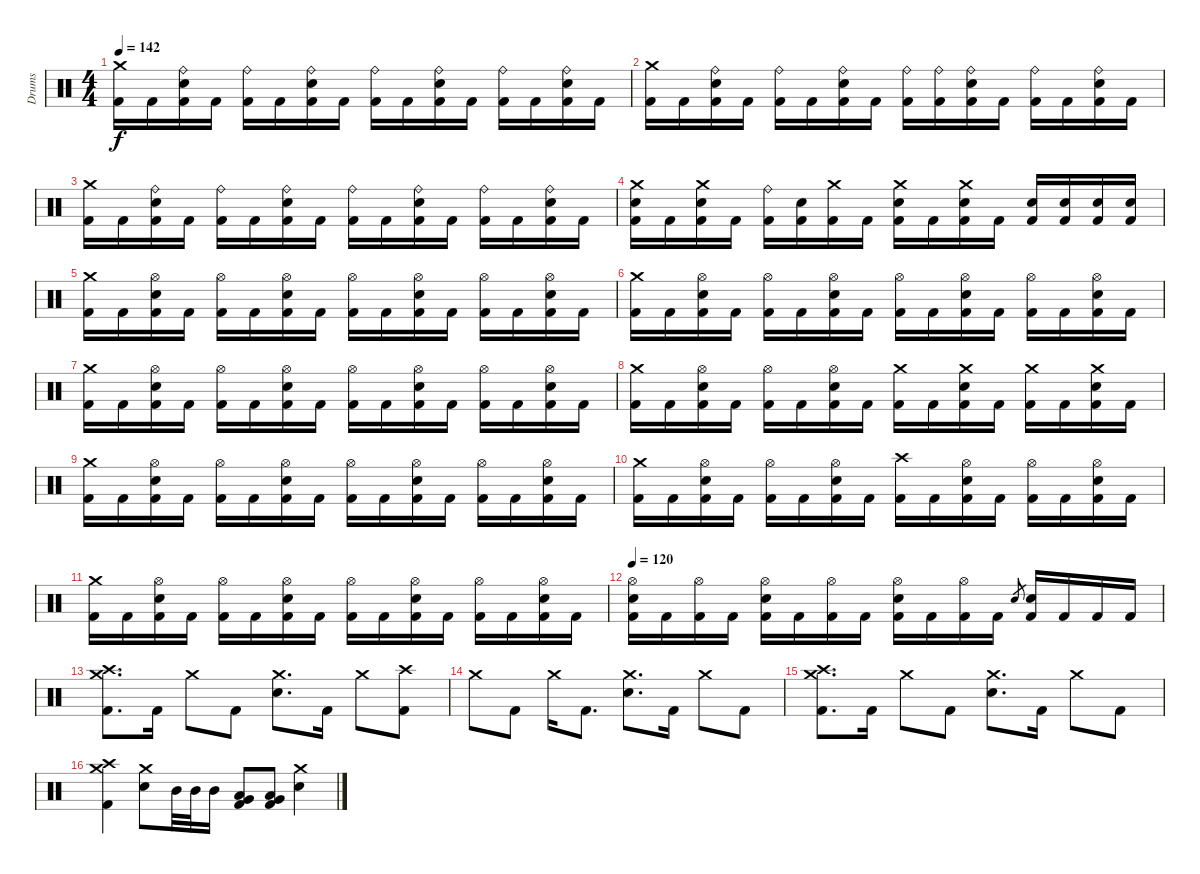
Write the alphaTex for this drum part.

\track ("Drums" "Drums") {instrument percussion}
\staff {score}
\articulation defaults
\ts (4 4)
\tempo 142
\clef neutral
\ks c
("Crash medium (hit)" "Kick (hit) 2").16{dy f} "Kick (hit) 2".16 ("Ride (bell)" "Electric Snare (hit)" "Kick (hit) 2").16 "Kick (hit) 2".16 ("Ride (bell)" "Kick (hit) 2").16 "Kick (hit) 2".16 ("Ride (bell)" "Electric Snare (hit)" "Kick (hit) 2").16 "Kick (hit) 2".16 ("Ride (bell)" "Kick (hit) 2").16 "Kick (hit) 2".16 ("Ride (bell)" "Electric Snare (hit)" "Kick (hit) 2").16 "Kick (hit) 2".16 ("Ride (bell)" "Kick (hit) 2").16 "Kick (hit) 2".16 ("Ride (bell)" "Electric Snare (hit)" "Kick (hit) 2").16 "Kick (hit) 2".16 |
("Crash medium (hit)" "Kick (hit) 2").16 "Kick (hit) 2".16 ("Ride (bell)" "Electric Snare (hit)" "Kick (hit) 2").16 "Kick (hit) 2".16 ("Ride (bell)" "Kick (hit) 2").16 "Kick (hit) 2".16 ("Ride (bell)" "Electric Snare (hit)" "Kick (hit) 2").16 "Kick (hit) 2".16 ("Ride (bell)" "Kick (hit) 2").16 ("Ride (bell)" "Kick (hit) 2").16 ("Ride (bell)" "Electric Snare (hit)" "Kick (hit) 2").16 "Kick (hit) 2".16 ("Ride (bell)" "Kick (hit) 2").16 "Kick (hit) 2".16 ("Ride (bell)" "Electric Snare (hit)" "Kick (hit) 2").16 "Kick (hit) 2".16 |
("Crash medium (hit)" "Kick (hit) 2").16 "Kick (hit) 2".16 ("Ride (bell)" "Electric Snare (hit)" "Kick (hit) 2").16 "Kick (hit) 2".16 ("Ride (bell)" "Kick (hit) 2").16 "Kick (hit) 2".16 ("Ride (bell)" "Electric Snare (hit)" "Kick (hit) 2").16 "Kick (hit) 2".16 ("Ride (bell)" "Kick (hit) 2").16 "Kick (hit) 2".16 ("Ride (bell)" "Electric Snare (hit)" "Kick (hit) 2").16 "Kick (hit) 2".16 ("Ride (bell)" "Kick (hit) 2").16 "Kick (hit) 2".16 ("Ride (bell)" "Electric Snare (hit)" "Kick (hit) 2").16 "Kick (hit) 2".16 |
("Crash medium (hit)" "Electric Snare (hit)" "Kick (hit) 2").16 "Kick (hit) 2".16 ("Crash medium (hit)" "Electric Snare (hit)" "Kick (hit) 2").16 "Kick (hit) 2".16 ("Ride (bell)" "Kick (hit) 2").16 ("Electric Snare (hit)" "Kick (hit) 2").16 ("Crash medium (hit)" "Kick (hit) 2").16 "Kick (hit) 2".16 ("Crash medium (hit)" "Electric Snare (hit)" "Kick (hit) 2").16 "Kick (hit) 2".16 ("Crash medium (hit)" "Electric Snare (hit)" "Kick (hit) 2").16 "Kick (hit) 2".16 ("Electric Snare (hit)" "Kick (hit) 2").16 ("Electric Snare (hit)" "Kick (hit) 2").16 ("Electric Snare (hit)" "Kick (hit) 2").16 ("Electric Snare (hit)" "Kick (hit) 2").16 |
("Crash medium (hit)" "Kick (hit) 2").16 "Kick (hit) 2".16 ("Hi-Hat (open)" "Electric Snare (hit)" "Kick (hit) 2").16 "Kick (hit) 2".16 ("Hi-Hat (open)" "Kick (hit) 2").16 "Kick (hit) 2".16 ("Hi-Hat (open)" "Electric Snare (hit)" "Kick (hit) 2").16 "Kick (hit) 2".16 ("Hi-Hat (open)" "Kick (hit) 2").16 "Kick (hit) 2".16 ("Hi-Hat (open)" "Electric Snare (hit)" "Kick (hit) 2").16 "Kick (hit) 2".16 ("Hi-Hat (open)" "Kick (hit) 2").16 "Kick (hit) 2".16 ("Hi-Hat (open)" "Electric Snare (hit)" "Kick (hit) 2").16 "Kick (hit) 2".16 |
("Crash medium (hit)" "Kick (hit) 2").16 "Kick (hit) 2".16 ("Hi-Hat (open)" "Electric Snare (hit)" "Kick (hit) 2").16 "Kick (hit) 2".16 ("Hi-Hat (open)" "Kick (hit) 2").16 "Kick (hit) 2".16 ("Hi-Hat (open)" "Electric Snare (hit)" "Kick (hit) 2").16 "Kick (hit) 2".16 ("Hi-Hat (open)" "Kick (hit) 2").16 "Kick (hit) 2".16 ("Hi-Hat (open)" "Electric Snare (hit)" "Kick (hit) 2").16 "Kick (hit) 2".16 ("Hi-Hat (open)" "Kick (hit) 2").16 "Kick (hit) 2".16 ("Hi-Hat (open)" "Electric Snare (hit)" "Kick (hit) 2").16 "Kick (hit) 2".16 |
("Crash medium (hit)" "Kick (hit) 2").16 "Kick (hit) 2".16 ("Hi-Hat (open)" "Electric Snare (hit)" "Kick (hit) 2").16 "Kick (hit) 2".16 ("Hi-Hat (open)" "Kick (hit) 2").16 "Kick (hit) 2".16 ("Hi-Hat (open)" "Electric Snare (hit)" "Kick (hit) 2").16 "Kick (hit) 2".16 ("Hi-Hat (open)" "Kick (hit) 2").16 "Kick (hit) 2".16 ("Hi-Hat (open)" "Electric Snare (hit)" "Kick (hit) 2").16 "Kick (hit) 2".16 ("Hi-Hat (open)" "Kick (hit) 2").16 "Kick (hit) 2".16 ("Hi-Hat (open)" "Electric Snare (hit)" "Kick (hit) 2").16 "Kick (hit) 2".16 |
("Crash medium (hit)" "Kick (hit) 2").16 "Kick (hit) 2".16 ("Hi-Hat (open)" "Electric Snare (hit)" "Kick (hit) 2").16 "Kick (hit) 2".16 ("Hi-Hat (open)" "Kick (hit) 2").16 "Kick (hit) 2".16 ("Hi-Hat (open)" "Electric Snare (hit)" "Kick (hit) 2").16 "Kick (hit) 2".16 ("Crash medium (hit)" "Kick (hit) 2").16 "Kick (hit) 2".16 ("Crash medium (hit)" "Electric Snare (hit)" "Kick (hit) 2").16 "Kick (hit) 2".16 ("Crash medium (hit)" "Kick (hit) 2").16 "Kick (hit) 2".16 ("Crash medium (hit)" "Electric Snare (hit)" "Kick (hit) 2").16 "Kick (hit) 2".16 |
("Crash medium (hit)" "Kick (hit) 2").16 "Kick (hit) 2".16 ("Hi-Hat (open)" "Electric Snare (hit)" "Kick (hit) 2").16 "Kick (hit) 2".16 ("Hi-Hat (open)" "Kick (hit) 2").16 "Kick (hit) 2".16 ("Hi-Hat (open)" "Electric Snare (hit)" "Kick (hit) 2").16 "Kick (hit) 2".16 ("Hi-Hat (open)" "Kick (hit) 2").16 "Kick (hit) 2".16 ("Hi-Hat (open)" "Electric Snare (hit)" "Kick (hit) 2").16 "Kick (hit) 2".16 ("Hi-Hat (open)" "Kick (hit) 2").16 "Kick (hit) 2".16 ("Hi-Hat (open)" "Electric Snare (hit)" "Kick (hit) 2").16 "Kick (hit) 2".16 |
("Crash medium (hit)" "Kick (hit) 2").16 "Kick (hit) 2".16 ("Hi-Hat (open)" "Electric Snare (hit)" "Kick (hit) 2").16 "Kick (hit) 2".16 ("Hi-Hat (open)" "Kick (hit) 2").16 "Kick (hit) 2".16 ("Hi-Hat (open)" "Electric Snare (hit)" "Kick (hit) 2").16 "Kick (hit) 2".16 ("Crash high (hit)" "Kick (hit) 2").16 "Kick (hit) 2".16 ("Hi-Hat (open)" "Electric Snare (hit)" "Kick (hit) 2").16 "Kick (hit) 2".16 ("Hi-Hat (open)" "Kick (hit) 2").16 "Kick (hit) 2".16 ("Hi-Hat (open)" "Electric Snare (hit)" "Kick (hit) 2").16 "Kick (hit) 2".16 |
("Crash medium (hit)" "Kick (hit) 2").16 "Kick (hit) 2".16 ("Hi-Hat (open)" "Electric Snare (hit)" "Kick (hit) 2").16 "Kick (hit) 2".16 ("Hi-Hat (open)" "Kick (hit) 2").16 "Kick (hit) 2".16 ("Hi-Hat (open)" "Electric Snare (hit)" "Kick (hit) 2").16 "Kick (hit) 2".16 ("Hi-Hat (open)" "Kick (hit) 2").16 "Kick (hit) 2".16 ("Hi-Hat (open)" "Electric Snare (hit)" "Kick (hit) 2").16 "Kick (hit) 2".16 ("Hi-Hat (open)" "Kick (hit) 2").16 "Kick (hit) 2".16 ("Hi-Hat (open)" "Electric Snare (hit)" "Kick (hit) 2").16 "Kick (hit) 2".16 |
\tempo 120
("Hi-Hat (open)" "Electric Snare (hit)" "Kick (hit) 2").16 "Kick (hit) 2".16 ("Hi-Hat (open)" "Kick (hit) 2").16 "Kick (hit) 2".16 ("Hi-Hat (open)" "Electric Snare (hit)" "Kick (hit) 2").16 "Kick (hit) 2".16 ("Hi-Hat (open)" "Kick (hit) 2").16 "Kick (hit) 2".16 ("Hi-Hat (open)" "Electric Snare (hit)" "Kick (hit) 2").16 "Kick (hit) 2".16 ("Hi-Hat (open)" "Kick (hit) 2").16 "Kick (hit) 2".16 "Electric Snare (hit)".8{gr} ("Electric Snare (hit)" "Kick (hit) 2").16 "Kick (hit) 2".16 "Kick (hit) 2".16 "Kick (hit) 2".16 |
("Crash medium (hit)" "Crash high (hit)" "Kick (hit) 2").8{d} "Kick (hit) 2".16 "Crash medium (hit)".8 "Kick (hit) 2".8 ("Crash medium (hit)" "Electric Snare (hit)").8{d} "Kick (hit) 2".16 "Crash medium (hit)".8 ("Crash high (hit)" "Kick (hit) 2").8 |
"Crash medium (hit)".8 "Kick (hit) 2".8 "Crash medium (hit)".16 "Kick (hit) 2".8{d} ("Crash medium (hit)" "Electric Snare (hit)").8{d} "Kick (hit) 2".16 "Crash medium (hit)".8 "Kick (hit) 2".8 |
("Crash medium (hit)" "Crash high (hit)" "Kick (hit) 2").8{d} "Kick (hit) 2".16 "Crash medium (hit)".8 "Kick (hit) 2".8 ("Crash medium (hit)" "Electric Snare (hit)").8{d} "Kick (hit) 2".16 "Crash medium (hit)".8 "Kick (hit) 2".8 |
("Crash medium (hit)" "Crash high (hit)" "Kick (hit) 2").4 ("Crash medium (hit)" "Electric Snare (hit)").8 "Mid Tom (hit)".32 "Mid Tom (hit)".32 "Mid Tom (hit)".16 ("Very Low Tom (hit)" "Low Tom (hit)" "Kick (hit) 2").8 ("Very Low Tom (hit)" "Low Tom (hit)" "Kick (hit) 2").8 ("Crash medium (hit)" "Electric Snare (hit)").4
